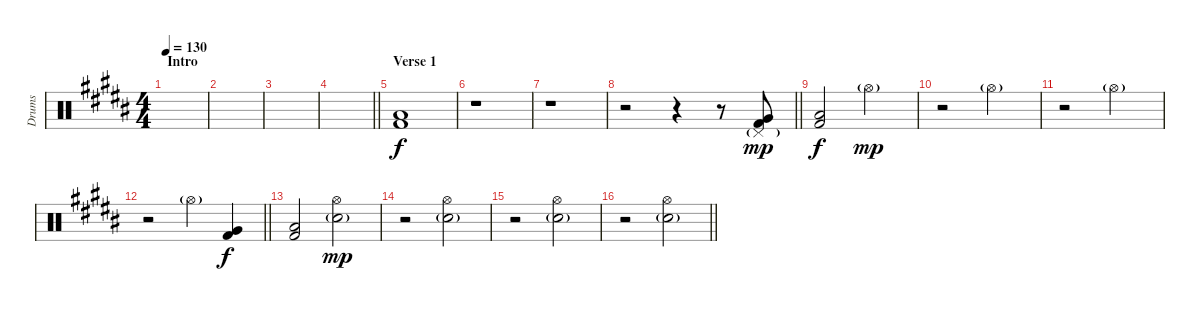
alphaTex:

\track ("Drums" "Drums") {instrument percussion}
\staff {score}
\articulation defaults
\ts (4 4)
\section ("" "Intro")
\tempo 130
\clef neutral
\ks b
|
|
|
\barLineRight lightlight
|
\section ("" "Verse 1")
("Low Floor Tom (hit)" "Kick (hit) 2").1 |
r.1 |
r.1 |
\barLineRight lightlight
r.2 r.4 r.8 ("Pedal Hi-Hat (hit)"{g} "Very Low Tom (hit)" "Kick (hit) 2").8{dy mp} |
("Low Floor Tom (hit)" "Kick (hit) 2").2{dy f} "Hi-Hat (open)"{g}.2{dy mp} |
r.2 "Hi-Hat (open)"{g}.2 |
r.2 "Hi-Hat (open)"{g}.2 |
\barLineRight lightlight
r.2 "Hi-Hat (open)"{g}.4 ("Very Low Tom (hit)" "Kick (hit) 2").4{dy f} |
("Low Floor Tom (hit)" "Kick (hit) 2").2 ("Hi-Hat (open)" "Electric Snare (hit)"{g}).2{dy mp} |
r.2 ("Hi-Hat (open)" "Electric Snare (hit)"{g}).2 |
r.2 ("Hi-Hat (open)" "Electric Snare (hit)"{g}).2 |
\barLineRight lightlight
r.2 ("Hi-Hat (open)" "Electric Snare (hit)"{g}).2
